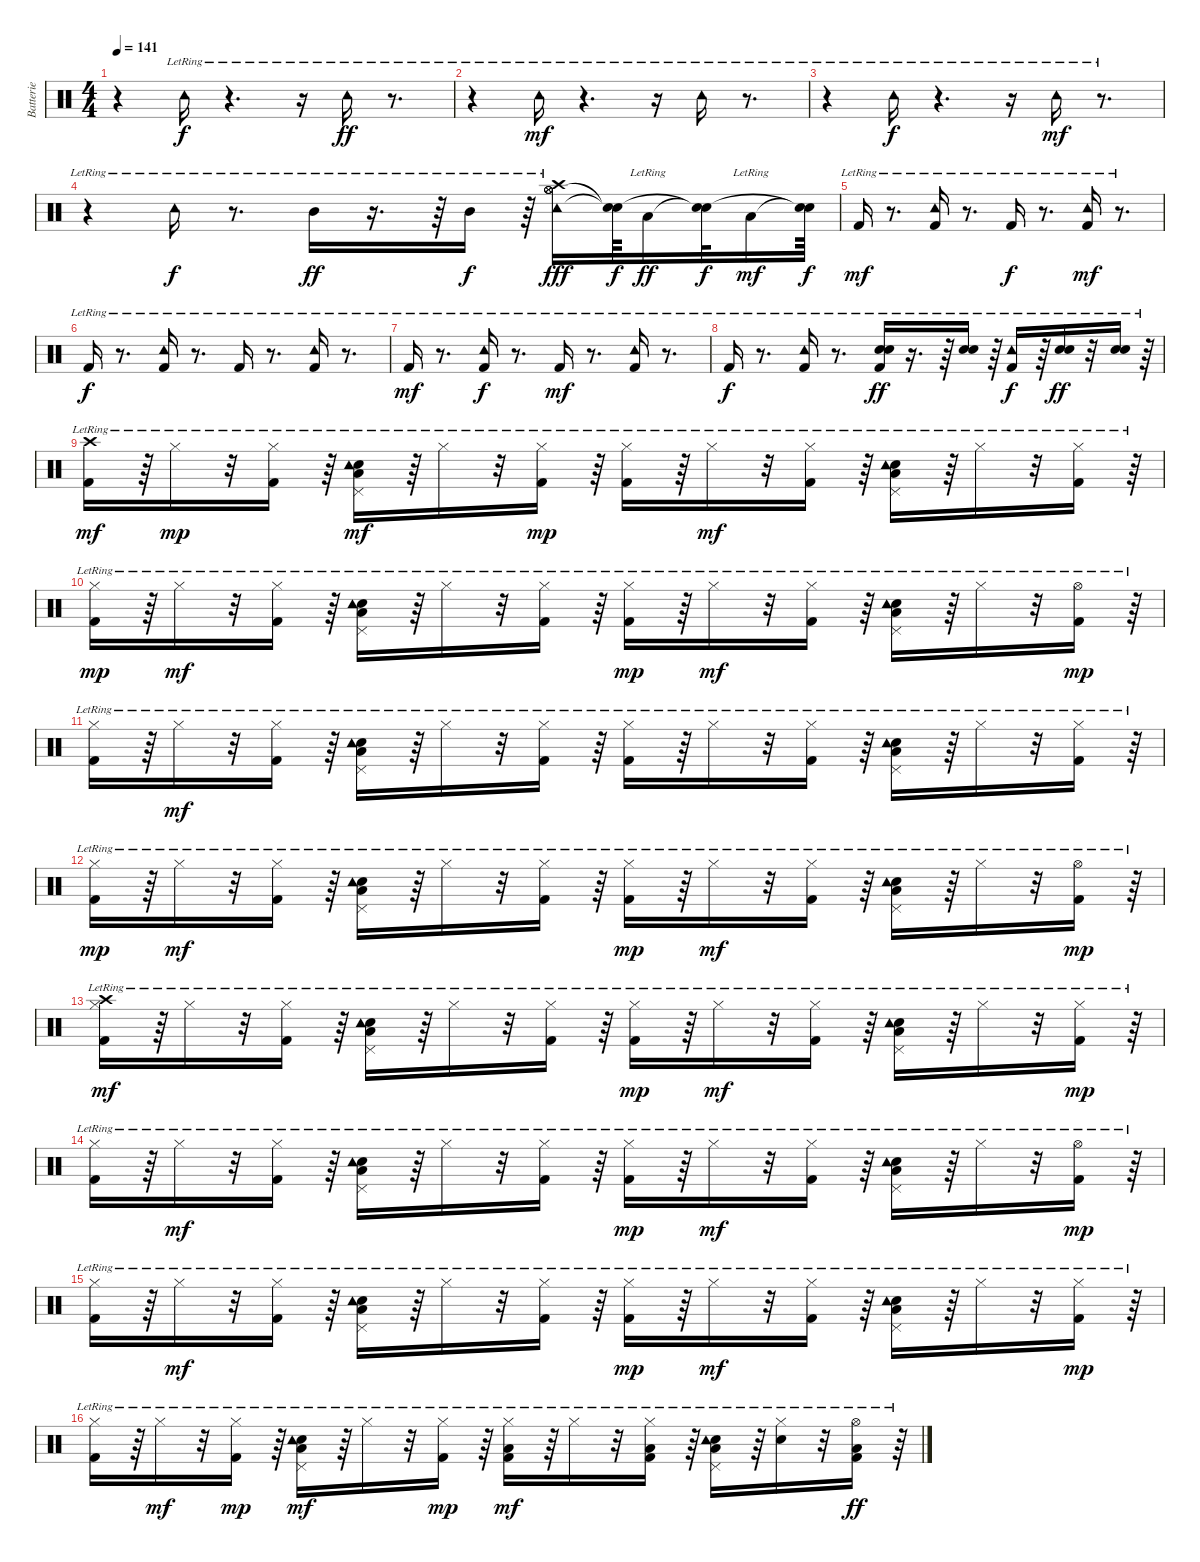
\track ("Batterie" "Batterie") {instrument percussion}
\staff {score}
\articulation defaults
\ts (4 4)
\tempo 141
\clef neutral
\ks c
r.4{dy f} "Tambourine (hit)"{lr}.16 r.4{d} r.16 "Tambourine (hit)"{lr}.16{dy ff} r.8{d} |
r.4 "Tambourine (hit)"{lr}.16{dy mf} r.4{d} r.16 "Tambourine (hit)"{lr}.16 r.8{d} |
r.4 "Tambourine (hit)"{lr}.16{dy f} r.4{d} r.16 "Tambourine (hit)"{lr}.16{dy mf} r.8{d} |
r.4 "Tambourine (hit)"{lr}.16{dy f} r.8{d} "Mid Tom (hit)"{lr}.16{dy ff} r.16{d} r.64 "Mid Tom (hit)"{lr}.16{dy f} r.64 ("Tambourine (hit)"{lr} "Hi-Hat (open)"{lr} "Hi-Hat (open)"{lr} "Hi-Hat (open)" "Crash high (hit)").16{dy fff} ("Snare (hit)"{t} "Snare (hit)"{t}).64{dy f} "Low Floor Tom (hit)"{lr}.16{dy ff} ("Snare (hit)"{t} "Snare (hit)"{t}).32{dy f} "Low Floor Tom (hit)"{lr}.16{dy mf} ("Snare (hit)"{t} "Snare (hit)"{t}).64{dy f} |
"Kick (hit) 2"{lr}.16{dy mf} r.8{d} ("Kick (hit) 2"{lr} "Tambourine (hit)"{lr}).16 r.8{d} "Kick (hit) 2"{lr}.16{dy f} r.8{d} ("Kick (hit) 2"{lr} "Tambourine (hit)"{lr}).16{dy mf} r.8{d} |
"Kick (hit) 2"{lr}.16{dy f} r.8{d} ("Kick (hit) 2"{lr} "Tambourine (hit)"{lr}).16 r.8{d} "Kick (hit) 2"{lr}.16 r.8{d} ("Kick (hit) 2"{lr} "Tambourine (hit)"{lr}).16 r.8{d} |
"Kick (hit) 2"{lr}.16{dy mf} r.8{d} ("Kick (hit) 2"{lr} "Tambourine (hit)"{lr}).16{dy f} r.8{d} "Kick (hit) 2"{lr}.16{dy mf} r.8{d} ("Kick (hit) 2"{lr} "Tambourine (hit)"{lr}).16 r.8{d} |
"Kick (hit) 2"{lr}.16{dy f} r.8{d} ("Kick (hit) 2"{lr} "Tambourine (hit)"{lr}).16 r.8{d} ("Snare (hit) 2"{lr} "Kick (hit) 2"{lr} "Snare (hit) 2").16{dy ff} r.16{d} r.64 ("Snare (hit) 2"{lr} "Snare (hit) 2").16 r.64 ("Kick (hit) 2"{lr} "Tambourine (hit)"{lr}).16{dy f} r.64 ("Snare (hit) 2"{lr} "Snare (hit) 2").16{dy ff} r.32 ("Snare (hit) 2"{lr} "Snare (hit) 2").16 r.64 |
("Crash high (hit)"{lr} "Kick (hit) 2"{lr}).16{dy mf} r.64 "Hi-Hat (closed)"{lr}.16{dy mp} r.32 ("Hi-Hat (closed)"{lr} "Kick (hit) 2"{lr}).16 r.64 ("Pedal Hi-Hat (hit)"{lr} "Snare (hit) 2"{lr} "Low Floor Tom (hit)"{lr} "Tambourine (hit)"{lr}).16{dy mf} r.64 "Hi-Hat (closed)"{lr}.16 r.32 ("Hi-Hat (closed)"{lr} "Kick (hit) 2"{lr}).16{dy mp} r.64 ("Hi-Hat (closed)"{lr} "Kick (hit) 2"{lr}).16 r.64 "Hi-Hat (closed)"{lr}.16{dy mf} r.32 ("Hi-Hat (closed)"{lr} "Kick (hit) 2"{lr}).16 r.64 ("Pedal Hi-Hat (hit)"{lr} "Snare (hit) 2"{lr} "Low Floor Tom (hit)"{lr} "Tambourine (hit)"{lr}).16 r.64 "Hi-Hat (closed)"{lr}.16 r.32 ("Hi-Hat (closed)"{lr} "Kick (hit) 2"{lr}).16 r.64 |
("Hi-Hat (closed)"{lr} "Kick (hit) 2"{lr}).16{dy mp} r.64 "Hi-Hat (closed)"{lr}.16{dy mf} r.32 ("Hi-Hat (closed)"{lr} "Kick (hit) 2"{lr}).16 r.64 ("Pedal Hi-Hat (hit)"{lr} "Snare (hit) 2"{lr} "Low Floor Tom (hit)"{lr} "Tambourine (hit)"{lr}).16 r.64 "Hi-Hat (closed)"{lr}.16 r.32 ("Hi-Hat (closed)"{lr} "Kick (hit) 2"{lr}).16 r.64 ("Hi-Hat (closed)"{lr} "Kick (hit) 2"{lr}).16{dy mp} r.64 "Hi-Hat (closed)"{lr}.16{dy mf} r.32 ("Hi-Hat (closed)"{lr} "Kick (hit) 2"{lr}).16 r.64 ("Pedal Hi-Hat (hit)"{lr} "Snare (hit) 2"{lr} "Low Floor Tom (hit)"{lr} "Tambourine (hit)"{lr}).16 r.64 "Hi-Hat (closed)"{lr}.16 r.32 ("Hi-Hat (open)"{lr} "Kick (hit) 2"{lr}).16{dy mp} r.64 |
("Hi-Hat (closed)"{lr} "Kick (hit) 2"{lr}).16 r.64 "Hi-Hat (closed)"{lr}.16{dy mf} r.32 ("Hi-Hat (closed)"{lr} "Kick (hit) 2"{lr}).16 r.64 ("Pedal Hi-Hat (hit)"{lr} "Snare (hit) 2"{lr} "Low Floor Tom (hit)"{lr} "Tambourine (hit)"{lr}).16 r.64 "Hi-Hat (closed)"{lr}.16 r.32 ("Hi-Hat (closed)"{lr} "Kick (hit) 2"{lr}).16 r.64 ("Hi-Hat (closed)"{lr} "Kick (hit) 2"{lr}).16 r.64 "Hi-Hat (closed)"{lr}.16 r.32 ("Hi-Hat (closed)"{lr} "Kick (hit) 2"{lr}).16 r.64 ("Pedal Hi-Hat (hit)"{lr} "Snare (hit) 2"{lr} "Low Floor Tom (hit)"{lr} "Tambourine (hit)"{lr}).16 r.64 "Hi-Hat (closed)"{lr}.16 r.32 ("Hi-Hat (closed)"{lr} "Kick (hit) 2"{lr}).16 r.64 |
("Hi-Hat (closed)"{lr} "Kick (hit) 2"{lr}).16{dy mp} r.64 "Hi-Hat (closed)"{lr}.16{dy mf} r.32 ("Hi-Hat (closed)"{lr} "Kick (hit) 2"{lr}).16 r.64 ("Pedal Hi-Hat (hit)"{lr} "Snare (hit) 2"{lr} "Low Floor Tom (hit)"{lr} "Tambourine (hit)"{lr}).16 r.64 "Hi-Hat (closed)"{lr}.16 r.32 ("Hi-Hat (closed)"{lr} "Kick (hit) 2"{lr}).16 r.64 ("Hi-Hat (closed)"{lr} "Kick (hit) 2"{lr}).16{dy mp} r.64 "Hi-Hat (closed)"{lr}.16{dy mf} r.32 ("Hi-Hat (closed)"{lr} "Kick (hit) 2"{lr}).16 r.64 ("Pedal Hi-Hat (hit)"{lr} "Snare (hit) 2"{lr} "Low Floor Tom (hit)"{lr} "Tambourine (hit)"{lr}).16 r.64 "Hi-Hat (closed)"{lr}.16 r.32 ("Hi-Hat (open)"{lr} "Kick (hit) 2"{lr}).16{dy mp} r.64 |
("Hi-Hat (closed)"{lr} "Crash high (hit)"{lr} "Kick (hit) 2"{lr}).16{dy mf} r.64 "Hi-Hat (closed)"{lr}.16 r.32 ("Hi-Hat (closed)"{lr} "Kick (hit) 2"{lr}).16 r.64 ("Pedal Hi-Hat (hit)"{lr} "Snare (hit) 2"{lr} "Low Floor Tom (hit)"{lr} "Tambourine (hit)"{lr}).16 r.64 "Hi-Hat (closed)"{lr}.16 r.32 ("Hi-Hat (closed)"{lr} "Kick (hit) 2"{lr}).16 r.64 ("Hi-Hat (closed)"{lr} "Kick (hit) 2"{lr}).16{dy mp} r.64 "Hi-Hat (closed)"{lr}.16{dy mf} r.32 ("Hi-Hat (closed)"{lr} "Kick (hit) 2"{lr}).16 r.64 ("Pedal Hi-Hat (hit)"{lr} "Snare (hit) 2"{lr} "Low Floor Tom (hit)"{lr} "Tambourine (hit)"{lr}).16 r.64 "Hi-Hat (closed)"{lr}.16 r.32 ("Hi-Hat (closed)"{lr} "Kick (hit) 2"{lr}).16{dy mp} r.64 |
("Hi-Hat (closed)"{lr} "Kick (hit) 2"{lr}).16 r.64 "Hi-Hat (closed)"{lr}.16{dy mf} r.32 ("Hi-Hat (closed)"{lr} "Kick (hit) 2"{lr}).16 r.64 ("Pedal Hi-Hat (hit)"{lr} "Snare (hit) 2"{lr} "Low Floor Tom (hit)"{lr} "Tambourine (hit)"{lr}).16 r.64 "Hi-Hat (closed)"{lr}.16 r.32 ("Hi-Hat (closed)"{lr} "Kick (hit) 2"{lr}).16 r.64 ("Hi-Hat (closed)"{lr} "Kick (hit) 2"{lr}).16{dy mp} r.64 "Hi-Hat (closed)"{lr}.16{dy mf} r.32 ("Hi-Hat (closed)"{lr} "Kick (hit) 2"{lr}).16 r.64 ("Pedal Hi-Hat (hit)"{lr} "Snare (hit) 2"{lr} "Low Floor Tom (hit)"{lr} "Tambourine (hit)"{lr}).16 r.64 "Hi-Hat (closed)"{lr}.16 r.32 ("Hi-Hat (open)"{lr} "Kick (hit) 2"{lr}).16{dy mp} r.64 |
("Hi-Hat (closed)"{lr} "Kick (hit) 2"{lr}).16 r.64 "Hi-Hat (closed)"{lr}.16{dy mf} r.32 ("Hi-Hat (closed)"{lr} "Kick (hit) 2"{lr}).16 r.64 ("Pedal Hi-Hat (hit)"{lr} "Snare (hit) 2"{lr} "Low Floor Tom (hit)"{lr} "Tambourine (hit)"{lr}).16 r.64 "Hi-Hat (closed)"{lr}.16 r.32 ("Hi-Hat (closed)"{lr} "Kick (hit) 2"{lr}).16 r.64 ("Hi-Hat (closed)"{lr} "Kick (hit) 2"{lr}).16{dy mp} r.64 "Hi-Hat (closed)"{lr}.16{dy mf} r.32 ("Hi-Hat (closed)"{lr} "Kick (hit) 2"{lr}).16 r.64 ("Pedal Hi-Hat (hit)"{lr} "Snare (hit) 2"{lr} "Low Floor Tom (hit)"{lr} "Tambourine (hit)"{lr}).16 r.64 "Hi-Hat (closed)"{lr}.16 r.32 ("Hi-Hat (closed)"{lr} "Kick (hit) 2"{lr}).16{dy mp} r.64 |
("Hi-Hat (closed)"{lr} "Kick (hit) 2"{lr}).16 r.64 "Hi-Hat (closed)"{lr}.16{dy mf} r.32 ("Hi-Hat (closed)"{lr} "Kick (hit) 2"{lr}).16{dy mp} r.64 ("Pedal Hi-Hat (hit)"{lr} "Snare (hit) 2"{lr} "Low Floor Tom (hit)"{lr} "Tambourine (hit)"{lr}).16{dy mf} r.64 "Hi-Hat (closed)"{lr}.16 r.32 ("Hi-Hat (closed)"{lr} "Kick (hit) 2"{lr}).16{dy mp} r.64 ("Hi-Hat (closed)"{lr} "Kick (hit) 2"{lr} "Low Floor Tom (hit)"{lr}).16{dy mf} r.64 "Hi-Hat (closed)"{lr}.16 r.32 ("Hi-Hat (closed)"{lr} "Kick (hit) 2"{lr} "Low Floor Tom (hit)"{lr}).16 r.64 ("Pedal Hi-Hat (hit)"{lr} "Snare (hit) 2"{lr} "Low Floor Tom (hit)"{lr} "Tambourine (hit)"{lr}).16 r.64 ("Hi-Hat (closed)"{lr} "Snare (hit) 2"{lr}).16 r.32 ("Hi-Hat (open)"{lr} "Kick (hit) 2"{lr} "Low Floor Tom (hit)"{lr}).16{dy ff} r.64
